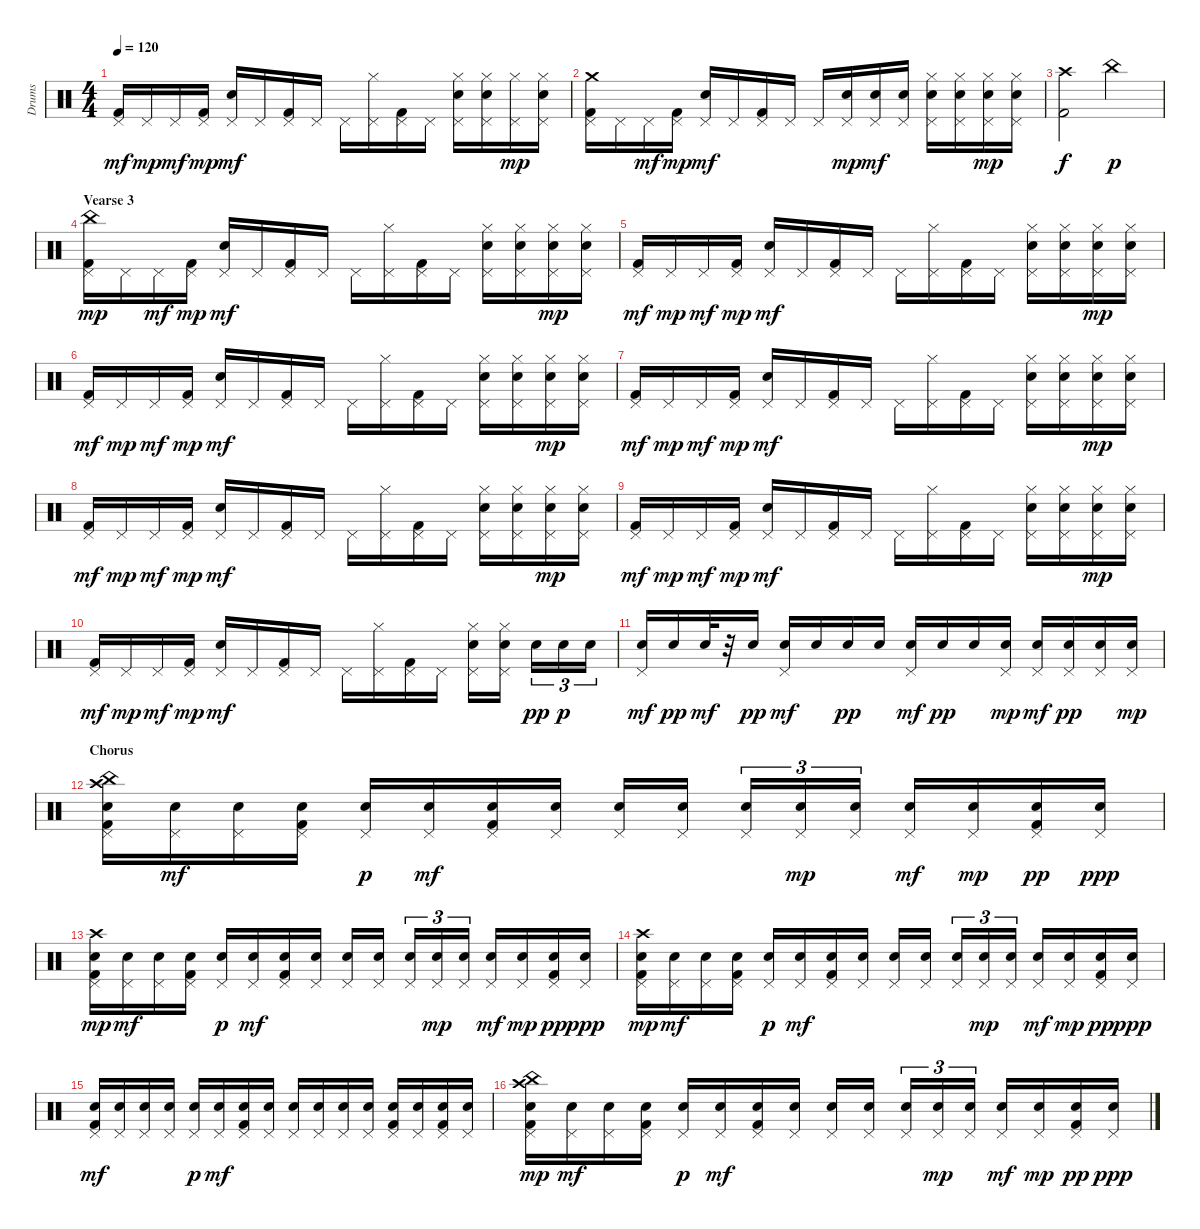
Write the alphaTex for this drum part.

\track ("Drums" "Drums") {instrument percussion}
\staff {score}
\articulation defaults
\ts (4 4)
\tempo 120
\clef neutral
\ks c
("Pedal Hi-Hat (hit)" "Kick (hit) 2").16{dy mf} "Pedal Hi-Hat (hit)".16{dy mp} "Pedal Hi-Hat (hit)".16{dy mf} ("Pedal Hi-Hat (hit)" "Kick (hit) 2").16{dy mp} ("Pedal Hi-Hat (hit)" "Electric Snare (hit)").16{dy mf} "Pedal Hi-Hat (hit)".16 ("Pedal Hi-Hat (hit)" "Kick (hit) 2").16 "Pedal Hi-Hat (hit)".16 "Pedal Hi-Hat (hit)".16 ("Pedal Hi-Hat (hit)" "Hi-Hat (closed)").16 ("Pedal Hi-Hat (hit)" "Kick (hit) 2").16 "Pedal Hi-Hat (hit)".16 ("Pedal Hi-Hat (hit)" "Electric Snare (hit)" "Hi-Hat (closed)").16 ("Pedal Hi-Hat (hit)" "Electric Snare (hit)" "Hi-Hat (closed)").16 ("Pedal Hi-Hat (hit)" "Hi-Hat (closed)").16{dy mp} ("Pedal Hi-Hat (hit)" "Electric Snare (hit)" "Hi-Hat (closed)").16 |
("Pedal Hi-Hat (hit)" "Crash medium (hit)" "Kick (hit) 2").16 "Pedal Hi-Hat (hit)".16 "Pedal Hi-Hat (hit)".16{dy mf} ("Pedal Hi-Hat (hit)" "Kick (hit) 2").16{dy mp} ("Pedal Hi-Hat (hit)" "Electric Snare (hit)").16{dy mf} "Pedal Hi-Hat (hit)".16 ("Pedal Hi-Hat (hit)" "Kick (hit) 2").16 "Pedal Hi-Hat (hit)".16 "Pedal Hi-Hat (hit)".16 ("Pedal Hi-Hat (hit)" "Electric Snare (hit)").16{dy mp} ("Pedal Hi-Hat (hit)" "Electric Snare (hit)").16{dy mf} ("Pedal Hi-Hat (hit)" "Electric Snare (hit)").16 ("Pedal Hi-Hat (hit)" "Electric Snare (hit)" "Hi-Hat (closed)").16 ("Pedal Hi-Hat (hit)" "Electric Snare (hit)" "Hi-Hat (closed)").16 ("Pedal Hi-Hat (hit)" "Electric Snare (hit)" "Hi-Hat (closed)").16{dy mp} ("Pedal Hi-Hat (hit)" "Electric Snare (hit)" "Hi-Hat (closed)").16 |
("Crash high (hit)" "Kick (hit) 2").2{dy f} "China (hit)".2{dy p} |
\section ("" "Vearse 3")
("Pedal Hi-Hat (hit)" "China (hit)" "Kick (hit) 2").16{dy mp} "Pedal Hi-Hat (hit)".16 "Pedal Hi-Hat (hit)".16{dy mf} ("Pedal Hi-Hat (hit)" "Kick (hit) 2").16{dy mp} ("Pedal Hi-Hat (hit)" "Electric Snare (hit)").16{dy mf} "Pedal Hi-Hat (hit)".16 ("Pedal Hi-Hat (hit)" "Kick (hit) 2").16 "Pedal Hi-Hat (hit)".16 "Pedal Hi-Hat (hit)".16 ("Pedal Hi-Hat (hit)" "Hi-Hat (closed)").16 ("Pedal Hi-Hat (hit)" "Kick (hit) 2").16 "Pedal Hi-Hat (hit)".16 ("Pedal Hi-Hat (hit)" "Electric Snare (hit)" "Hi-Hat (closed)").16 ("Pedal Hi-Hat (hit)" "Electric Snare (hit)" "Hi-Hat (closed)").16 ("Pedal Hi-Hat (hit)" "Electric Snare (hit)" "Hi-Hat (closed)").16{dy mp} ("Pedal Hi-Hat (hit)" "Electric Snare (hit)" "Hi-Hat (closed)").16 |
("Pedal Hi-Hat (hit)" "Kick (hit) 2").16{dy mf} "Pedal Hi-Hat (hit)".16{dy mp} "Pedal Hi-Hat (hit)".16{dy mf} ("Pedal Hi-Hat (hit)" "Kick (hit) 2").16{dy mp} ("Pedal Hi-Hat (hit)" "Electric Snare (hit)").16{dy mf} "Pedal Hi-Hat (hit)".16 ("Pedal Hi-Hat (hit)" "Kick (hit) 2").16 "Pedal Hi-Hat (hit)".16 "Pedal Hi-Hat (hit)".16 ("Pedal Hi-Hat (hit)" "Hi-Hat (closed)").16 ("Pedal Hi-Hat (hit)" "Kick (hit) 2").16 "Pedal Hi-Hat (hit)".16 ("Pedal Hi-Hat (hit)" "Electric Snare (hit)" "Hi-Hat (closed)").16 ("Pedal Hi-Hat (hit)" "Electric Snare (hit)" "Hi-Hat (closed)").16 ("Pedal Hi-Hat (hit)" "Electric Snare (hit)" "Hi-Hat (closed)").16{dy mp} ("Pedal Hi-Hat (hit)" "Electric Snare (hit)" "Hi-Hat (closed)").16 |
("Pedal Hi-Hat (hit)" "Kick (hit) 2").16{dy mf} "Pedal Hi-Hat (hit)".16{dy mp} "Pedal Hi-Hat (hit)".16{dy mf} ("Pedal Hi-Hat (hit)" "Kick (hit) 2").16{dy mp} ("Pedal Hi-Hat (hit)" "Electric Snare (hit)").16{dy mf} "Pedal Hi-Hat (hit)".16 ("Pedal Hi-Hat (hit)" "Kick (hit) 2").16 "Pedal Hi-Hat (hit)".16 "Pedal Hi-Hat (hit)".16 ("Pedal Hi-Hat (hit)" "Hi-Hat (closed)").16 ("Pedal Hi-Hat (hit)" "Kick (hit) 2").16 "Pedal Hi-Hat (hit)".16 ("Pedal Hi-Hat (hit)" "Electric Snare (hit)" "Hi-Hat (closed)").16 ("Pedal Hi-Hat (hit)" "Electric Snare (hit)" "Hi-Hat (closed)").16 ("Pedal Hi-Hat (hit)" "Electric Snare (hit)" "Hi-Hat (closed)").16{dy mp} ("Pedal Hi-Hat (hit)" "Electric Snare (hit)" "Hi-Hat (closed)").16 |
("Pedal Hi-Hat (hit)" "Kick (hit) 2").16{dy mf} "Pedal Hi-Hat (hit)".16{dy mp} "Pedal Hi-Hat (hit)".16{dy mf} ("Pedal Hi-Hat (hit)" "Kick (hit) 2").16{dy mp} ("Pedal Hi-Hat (hit)" "Electric Snare (hit)").16{dy mf} "Pedal Hi-Hat (hit)".16 ("Pedal Hi-Hat (hit)" "Kick (hit) 2").16 "Pedal Hi-Hat (hit)".16 "Pedal Hi-Hat (hit)".16 ("Pedal Hi-Hat (hit)" "Hi-Hat (closed)").16 ("Pedal Hi-Hat (hit)" "Kick (hit) 2").16 "Pedal Hi-Hat (hit)".16 ("Pedal Hi-Hat (hit)" "Electric Snare (hit)" "Hi-Hat (closed)").16 ("Pedal Hi-Hat (hit)" "Electric Snare (hit)" "Hi-Hat (closed)").16 ("Pedal Hi-Hat (hit)" "Electric Snare (hit)" "Hi-Hat (closed)").16{dy mp} ("Pedal Hi-Hat (hit)" "Electric Snare (hit)" "Hi-Hat (closed)").16 |
("Pedal Hi-Hat (hit)" "Kick (hit) 2").16{dy mf} "Pedal Hi-Hat (hit)".16{dy mp} "Pedal Hi-Hat (hit)".16{dy mf} ("Pedal Hi-Hat (hit)" "Kick (hit) 2").16{dy mp} ("Pedal Hi-Hat (hit)" "Electric Snare (hit)").16{dy mf} "Pedal Hi-Hat (hit)".16 ("Pedal Hi-Hat (hit)" "Kick (hit) 2").16 "Pedal Hi-Hat (hit)".16 "Pedal Hi-Hat (hit)".16 ("Pedal Hi-Hat (hit)" "Hi-Hat (closed)").16 ("Pedal Hi-Hat (hit)" "Kick (hit) 2").16 "Pedal Hi-Hat (hit)".16 ("Pedal Hi-Hat (hit)" "Electric Snare (hit)" "Hi-Hat (closed)").16 ("Pedal Hi-Hat (hit)" "Electric Snare (hit)" "Hi-Hat (closed)").16 ("Pedal Hi-Hat (hit)" "Electric Snare (hit)" "Hi-Hat (closed)").16{dy mp} ("Pedal Hi-Hat (hit)" "Electric Snare (hit)" "Hi-Hat (closed)").16 |
("Pedal Hi-Hat (hit)" "Kick (hit) 2").16{dy mf} "Pedal Hi-Hat (hit)".16{dy mp} "Pedal Hi-Hat (hit)".16{dy mf} ("Pedal Hi-Hat (hit)" "Kick (hit) 2").16{dy mp} ("Pedal Hi-Hat (hit)" "Electric Snare (hit)").16{dy mf} "Pedal Hi-Hat (hit)".16 ("Pedal Hi-Hat (hit)" "Kick (hit) 2").16 "Pedal Hi-Hat (hit)".16 "Pedal Hi-Hat (hit)".16 ("Pedal Hi-Hat (hit)" "Hi-Hat (closed)").16 ("Pedal Hi-Hat (hit)" "Kick (hit) 2").16 "Pedal Hi-Hat (hit)".16 ("Pedal Hi-Hat (hit)" "Electric Snare (hit)" "Hi-Hat (closed)").16 ("Pedal Hi-Hat (hit)" "Electric Snare (hit)" "Hi-Hat (closed)").16 ("Pedal Hi-Hat (hit)" "Electric Snare (hit)" "Hi-Hat (closed)").16{dy mp} ("Pedal Hi-Hat (hit)" "Electric Snare (hit)" "Hi-Hat (closed)").16 |
("Pedal Hi-Hat (hit)" "Kick (hit) 2").16{dy mf} "Pedal Hi-Hat (hit)".16{dy mp} "Pedal Hi-Hat (hit)".16{dy mf} ("Pedal Hi-Hat (hit)" "Kick (hit) 2").16{dy mp} ("Pedal Hi-Hat (hit)" "Electric Snare (hit)").16{dy mf} "Pedal Hi-Hat (hit)".16 ("Pedal Hi-Hat (hit)" "Kick (hit) 2").16 "Pedal Hi-Hat (hit)".16 "Pedal Hi-Hat (hit)".16 ("Pedal Hi-Hat (hit)" "Hi-Hat (closed)").16 ("Pedal Hi-Hat (hit)" "Kick (hit) 2").16 "Pedal Hi-Hat (hit)".16 ("Pedal Hi-Hat (hit)" "Electric Snare (hit)" "Hi-Hat (closed)").16 ("Pedal Hi-Hat (hit)" "Electric Snare (hit)" "Hi-Hat (closed)").16 "Electric Snare (hit)".16{tu (3 2) dy pp} "Electric Snare (hit)".16{tu (3 2) dy p} "Electric Snare (hit)".16{tu (3 2)} |
("Pedal Hi-Hat (hit)" "Electric Snare (hit)").16{dy mf} "Electric Snare (hit)".16{dy pp} "Electric Snare (hit)".32{dy mf} r.32 "Electric Snare (hit)".16{dy pp} ("Electric Snare (hit)" "Pedal Hi-Hat (hit)").16{dy mf} "Electric Snare (hit)".16 "Electric Snare (hit)".16{dy pp} "Electric Snare (hit)".16 ("Pedal Hi-Hat (hit)" "Electric Snare (hit)").16{dy mf} "Electric Snare (hit)".16{dy pp} "Electric Snare (hit)".16 ("Pedal Hi-Hat (hit)" "Electric Snare (hit)").16{dy mp} ("Pedal Hi-Hat (hit)" "Electric Snare (hit)").16{dy mf} ("Pedal Hi-Hat (hit)" "Electric Snare (hit)").16{dy pp} ("Pedal Hi-Hat (hit)" "Electric Snare (hit)").16 ("Pedal Hi-Hat (hit)" "Electric Snare (hit)").16{dy mp} |
\section ("" "Chorus")
("Electric Snare (hit)" "Pedal Hi-Hat (hit)" "Kick (hit) 2" "China (hit)" "Crash high (hit)").16 ("Electric Snare (hit)" "Pedal Hi-Hat (hit)").16{dy mf} ("Electric Snare (hit)" "Pedal Hi-Hat (hit)").16 ("Electric Snare (hit)" "Pedal Hi-Hat (hit)" "Kick (hit) 2").16 ("Pedal Hi-Hat (hit)" "Electric Snare (hit)").16{dy p} ("Electric Snare (hit)" "Pedal Hi-Hat (hit)").16{dy mf} ("Electric Snare (hit)" "Pedal Hi-Hat (hit)" "Kick (hit) 2").16 ("Electric Snare (hit)" "Pedal Hi-Hat (hit)").16 ("Electric Snare (hit)" "Pedal Hi-Hat (hit)").16 ("Electric Snare (hit)" "Pedal Hi-Hat (hit)").16 ("Electric Snare (hit)" "Pedal Hi-Hat (hit)").16{tu (3 2)} ("Electric Snare (hit)" "Pedal Hi-Hat (hit)").16{tu (3 2) dy mp} ("Electric Snare (hit)" "Pedal Hi-Hat (hit)").16{tu (3 2)} ("Electric Snare (hit)" "Pedal Hi-Hat (hit)").16{dy mf} ("Electric Snare (hit)" "Pedal Hi-Hat (hit)").16{dy mp} ("Electric Snare (hit)" "Pedal Hi-Hat (hit)" "Kick (hit) 2").16{dy pp} ("Electric Snare (hit)" "Pedal Hi-Hat (hit)").16{dy ppp} |
("Electric Snare (hit)" "Pedal Hi-Hat (hit)" "Kick (hit) 2" "Crash high (hit)").16{dy mp} ("Electric Snare (hit)" "Pedal Hi-Hat (hit)").16{dy mf} ("Electric Snare (hit)" "Pedal Hi-Hat (hit)").16 ("Electric Snare (hit)" "Pedal Hi-Hat (hit)" "Kick (hit) 2").16 ("Pedal Hi-Hat (hit)" "Electric Snare (hit)").16{dy p} ("Electric Snare (hit)" "Pedal Hi-Hat (hit)").16{dy mf} ("Electric Snare (hit)" "Pedal Hi-Hat (hit)" "Kick (hit) 2").16 ("Electric Snare (hit)" "Pedal Hi-Hat (hit)").16 ("Electric Snare (hit)" "Pedal Hi-Hat (hit)").16 ("Electric Snare (hit)" "Pedal Hi-Hat (hit)").16 ("Electric Snare (hit)" "Pedal Hi-Hat (hit)").16{tu (3 2)} ("Electric Snare (hit)" "Pedal Hi-Hat (hit)").16{tu (3 2) dy mp} ("Electric Snare (hit)" "Pedal Hi-Hat (hit)").16{tu (3 2)} ("Electric Snare (hit)" "Pedal Hi-Hat (hit)").16{dy mf} ("Electric Snare (hit)" "Pedal Hi-Hat (hit)").16{dy mp} ("Electric Snare (hit)" "Pedal Hi-Hat (hit)" "Kick (hit) 2").16{dy pp} ("Electric Snare (hit)" "Pedal Hi-Hat (hit)").16{dy ppp} |
("Electric Snare (hit)" "Pedal Hi-Hat (hit)" "Kick (hit) 2" "Crash high (hit)").16{dy mp} ("Electric Snare (hit)" "Pedal Hi-Hat (hit)").16{dy mf} ("Electric Snare (hit)" "Pedal Hi-Hat (hit)").16 ("Electric Snare (hit)" "Pedal Hi-Hat (hit)" "Kick (hit) 2").16 ("Pedal Hi-Hat (hit)" "Electric Snare (hit)").16{dy p} ("Electric Snare (hit)" "Pedal Hi-Hat (hit)").16{dy mf} ("Electric Snare (hit)" "Pedal Hi-Hat (hit)" "Kick (hit) 2").16 ("Electric Snare (hit)" "Pedal Hi-Hat (hit)").16 ("Electric Snare (hit)" "Pedal Hi-Hat (hit)").16 ("Electric Snare (hit)" "Pedal Hi-Hat (hit)").16 ("Electric Snare (hit)" "Pedal Hi-Hat (hit)").16{tu (3 2)} ("Electric Snare (hit)" "Pedal Hi-Hat (hit)").16{tu (3 2) dy mp} ("Electric Snare (hit)" "Pedal Hi-Hat (hit)").16{tu (3 2)} ("Electric Snare (hit)" "Pedal Hi-Hat (hit)").16{dy mf} ("Electric Snare (hit)" "Pedal Hi-Hat (hit)").16{dy mp} ("Electric Snare (hit)" "Pedal Hi-Hat (hit)" "Kick (hit) 2").16{dy pp} ("Electric Snare (hit)" "Pedal Hi-Hat (hit)").16{dy ppp} |
("Electric Snare (hit)" "Pedal Hi-Hat (hit)" "Kick (hit) 2").16{dy mf} ("Electric Snare (hit)" "Pedal Hi-Hat (hit)").16 ("Electric Snare (hit)" "Pedal Hi-Hat (hit)").16 ("Electric Snare (hit)" "Pedal Hi-Hat (hit)").16 ("Pedal Hi-Hat (hit)" "Electric Snare (hit)").16{dy p} ("Electric Snare (hit)" "Pedal Hi-Hat (hit)").16{dy mf} ("Electric Snare (hit)" "Pedal Hi-Hat (hit)" "Kick (hit) 2").16 ("Electric Snare (hit)" "Pedal Hi-Hat (hit)").16 ("Electric Snare (hit)" "Pedal Hi-Hat (hit)").16 ("Electric Snare (hit)" "Pedal Hi-Hat (hit)").16 ("Electric Snare (hit)" "Pedal Hi-Hat (hit)").16 ("Electric Snare (hit)" "Pedal Hi-Hat (hit)").16 ("Electric Snare (hit)" "Pedal Hi-Hat (hit)" "Kick (hit) 2").16 ("Electric Snare (hit)" "Pedal Hi-Hat (hit)").16 ("Electric Snare (hit)" "Pedal Hi-Hat (hit)" "Kick (hit) 2").16 ("Electric Snare (hit)" "Pedal Hi-Hat (hit)").16 |
("Electric Snare (hit)" "Pedal Hi-Hat (hit)" "Kick (hit) 2" "China (hit)" "Crash high (hit)").16{dy mp} ("Electric Snare (hit)" "Pedal Hi-Hat (hit)").16{dy mf} ("Electric Snare (hit)" "Pedal Hi-Hat (hit)").16 ("Electric Snare (hit)" "Pedal Hi-Hat (hit)" "Kick (hit) 2").16 ("Pedal Hi-Hat (hit)" "Electric Snare (hit)").16{dy p} ("Electric Snare (hit)" "Pedal Hi-Hat (hit)").16{dy mf} ("Electric Snare (hit)" "Pedal Hi-Hat (hit)" "Kick (hit) 2").16 ("Electric Snare (hit)" "Pedal Hi-Hat (hit)").16 ("Electric Snare (hit)" "Pedal Hi-Hat (hit)").16 ("Electric Snare (hit)" "Pedal Hi-Hat (hit)").16 ("Electric Snare (hit)" "Pedal Hi-Hat (hit)").16{tu (3 2)} ("Electric Snare (hit)" "Pedal Hi-Hat (hit)").16{tu (3 2) dy mp} ("Electric Snare (hit)" "Pedal Hi-Hat (hit)").16{tu (3 2)} ("Electric Snare (hit)" "Pedal Hi-Hat (hit)").16{dy mf} ("Electric Snare (hit)" "Pedal Hi-Hat (hit)").16{dy mp} ("Electric Snare (hit)" "Pedal Hi-Hat (hit)" "Kick (hit) 2").16{dy pp} ("Electric Snare (hit)" "Pedal Hi-Hat (hit)").16{dy ppp}
